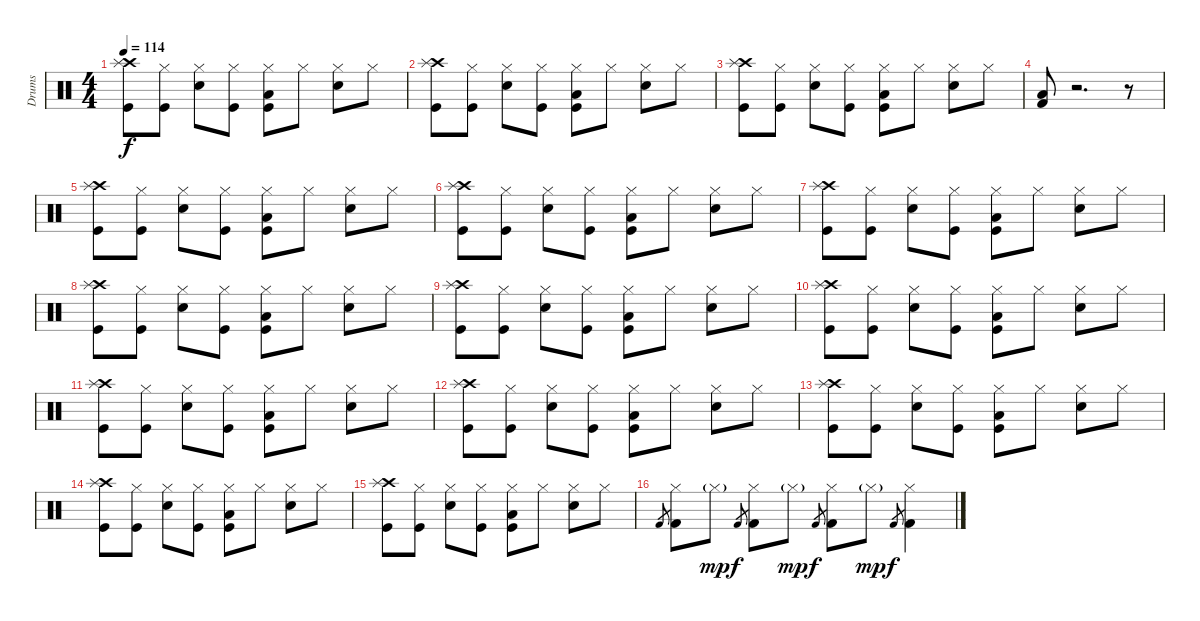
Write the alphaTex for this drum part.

\track ("Drums" "Drums") {instrument percussion}
\staff {score}
\articulation defaults
\ts (4 4)
\tempo 114
\clef neutral
\ks c
("Crash high (hit)" "Splash (hit)" "Kick (hit)").8{dy f} ("Hi-Hat (closed)" "Kick (hit)").8 ("Hi-Hat (closed)" "Snare (hit) 2").8 ("Hi-Hat (closed)" "Kick (hit)").8 ("Hi-Hat (closed)" "Low Floor Tom (hit)" "Kick (hit)").8 "Hi-Hat (closed)".8 ("Hi-Hat (closed)" "Snare (hit) 2").8 "Hi-Hat (closed)".8 |
("Crash high (hit)" "Splash (hit)" "Kick (hit)").8 ("Hi-Hat (closed)" "Kick (hit)").8 ("Hi-Hat (closed)" "Snare (hit) 2").8 ("Hi-Hat (closed)" "Kick (hit)").8 ("Hi-Hat (closed)" "Low Floor Tom (hit)" "Kick (hit)").8 "Hi-Hat (closed)".8 ("Hi-Hat (closed)" "Snare (hit) 2").8 "Hi-Hat (closed)".8 |
("Crash high (hit)" "Splash (hit)" "Kick (hit)").8 ("Hi-Hat (closed)" "Kick (hit)").8 ("Hi-Hat (closed)" "Snare (hit) 2").8 ("Hi-Hat (closed)" "Kick (hit)").8 ("Hi-Hat (closed)" "Low Floor Tom (hit)" "Kick (hit)").8 "Hi-Hat (closed)".8 ("Hi-Hat (closed)" "Snare (hit) 2").8 "Hi-Hat (closed)".8 |
("Low Floor Tom (hit)" "Kick (hit) 2").8 r.2{d} r.8 |
("Crash high (hit)" "Splash (hit)" "Kick (hit)").8 ("Hi-Hat (closed)" "Kick (hit)").8 ("Hi-Hat (closed)" "Snare (hit) 2").8 ("Hi-Hat (closed)" "Kick (hit)").8 ("Hi-Hat (closed)" "Low Floor Tom (hit)" "Kick (hit)").8 "Hi-Hat (closed)".8 ("Hi-Hat (closed)" "Snare (hit) 2").8 "Hi-Hat (closed)".8 |
("Crash high (hit)" "Splash (hit)" "Kick (hit)").8 ("Hi-Hat (closed)" "Kick (hit)").8 ("Hi-Hat (closed)" "Snare (hit) 2").8 ("Hi-Hat (closed)" "Kick (hit)").8 ("Hi-Hat (closed)" "Low Floor Tom (hit)" "Kick (hit)").8 "Hi-Hat (closed)".8 ("Hi-Hat (closed)" "Snare (hit) 2").8 "Hi-Hat (closed)".8 |
("Crash high (hit)" "Splash (hit)" "Kick (hit)").8 ("Hi-Hat (closed)" "Kick (hit)").8 ("Hi-Hat (closed)" "Snare (hit) 2").8 ("Hi-Hat (closed)" "Kick (hit)").8 ("Hi-Hat (closed)" "Low Floor Tom (hit)" "Kick (hit)").8 "Hi-Hat (closed)".8 ("Hi-Hat (closed)" "Snare (hit) 2").8 "Hi-Hat (closed)".8 |
("Crash high (hit)" "Splash (hit)" "Kick (hit)").8 ("Hi-Hat (closed)" "Kick (hit)").8 ("Hi-Hat (closed)" "Snare (hit) 2").8 ("Hi-Hat (closed)" "Kick (hit)").8 ("Hi-Hat (closed)" "Low Floor Tom (hit)" "Kick (hit)").8 "Hi-Hat (closed)".8 ("Hi-Hat (closed)" "Snare (hit) 2").8 "Hi-Hat (closed)".8 |
("Crash high (hit)" "Splash (hit)" "Kick (hit)").8 ("Hi-Hat (closed)" "Kick (hit)").8 ("Hi-Hat (closed)" "Snare (hit) 2").8 ("Hi-Hat (closed)" "Kick (hit)").8 ("Hi-Hat (closed)" "Low Floor Tom (hit)" "Kick (hit)").8 "Hi-Hat (closed)".8 ("Hi-Hat (closed)" "Snare (hit) 2").8 "Hi-Hat (closed)".8 |
("Crash high (hit)" "Splash (hit)" "Kick (hit)").8 ("Hi-Hat (closed)" "Kick (hit)").8 ("Hi-Hat (closed)" "Snare (hit) 2").8 ("Hi-Hat (closed)" "Kick (hit)").8 ("Hi-Hat (closed)" "Low Floor Tom (hit)" "Kick (hit)").8 "Hi-Hat (closed)".8 ("Hi-Hat (closed)" "Snare (hit) 2").8 "Hi-Hat (closed)".8 |
("Crash high (hit)" "Splash (hit)" "Kick (hit)").8 ("Hi-Hat (closed)" "Kick (hit)").8 ("Hi-Hat (closed)" "Snare (hit) 2").8 ("Hi-Hat (closed)" "Kick (hit)").8 ("Hi-Hat (closed)" "Low Floor Tom (hit)" "Kick (hit)").8 "Hi-Hat (closed)".8 ("Hi-Hat (closed)" "Snare (hit) 2").8 "Hi-Hat (closed)".8 |
("Crash high (hit)" "Splash (hit)" "Kick (hit)").8 ("Hi-Hat (closed)" "Kick (hit)").8 ("Hi-Hat (closed)" "Snare (hit) 2").8 ("Hi-Hat (closed)" "Kick (hit)").8 ("Hi-Hat (closed)" "Low Floor Tom (hit)" "Kick (hit)").8 "Hi-Hat (closed)".8 ("Hi-Hat (closed)" "Snare (hit) 2").8 "Hi-Hat (closed)".8 |
("Crash high (hit)" "Splash (hit)" "Kick (hit)").8 ("Hi-Hat (closed)" "Kick (hit)").8 ("Hi-Hat (closed)" "Snare (hit) 2").8 ("Hi-Hat (closed)" "Kick (hit)").8 ("Hi-Hat (closed)" "Low Floor Tom (hit)" "Kick (hit)").8 "Hi-Hat (closed)".8 ("Hi-Hat (closed)" "Snare (hit) 2").8 "Hi-Hat (closed)".8 |
("Crash high (hit)" "Splash (hit)" "Kick (hit)").8 ("Hi-Hat (closed)" "Kick (hit)").8 ("Hi-Hat (closed)" "Snare (hit) 2").8 ("Hi-Hat (closed)" "Kick (hit)").8 ("Hi-Hat (closed)" "Low Floor Tom (hit)" "Kick (hit)").8 "Hi-Hat (closed)".8 ("Hi-Hat (closed)" "Snare (hit) 2").8 "Hi-Hat (closed)".8 |
("Crash high (hit)" "Splash (hit)" "Kick (hit)").8 ("Hi-Hat (closed)" "Kick (hit)").8 ("Hi-Hat (closed)" "Snare (hit) 2").8 ("Hi-Hat (closed)" "Kick (hit)").8 ("Hi-Hat (closed)" "Low Floor Tom (hit)" "Kick (hit)").8 "Hi-Hat (closed)".8 ("Hi-Hat (closed)" "Snare (hit) 2").8 "Hi-Hat (closed)".8 |
"Kick (hit) 2".8{gr} ("Hi-Hat (closed)" "Kick (hit) 2").8 "Hi-Hat (closed)"{g}.8{dy mp} "Kick (hit) 2".8{gr dy f} ("Hi-Hat (closed)" "Kick (hit) 2").8 "Hi-Hat (closed)"{g}.8{dy mp} "Kick (hit) 2".8{gr dy f} ("Hi-Hat (closed)" "Kick (hit) 2").8 "Hi-Hat (closed)"{g}.8{dy mp} "Kick (hit) 2".8{gr dy f} ("Hi-Hat (closed)" "Kick (hit) 2").4
